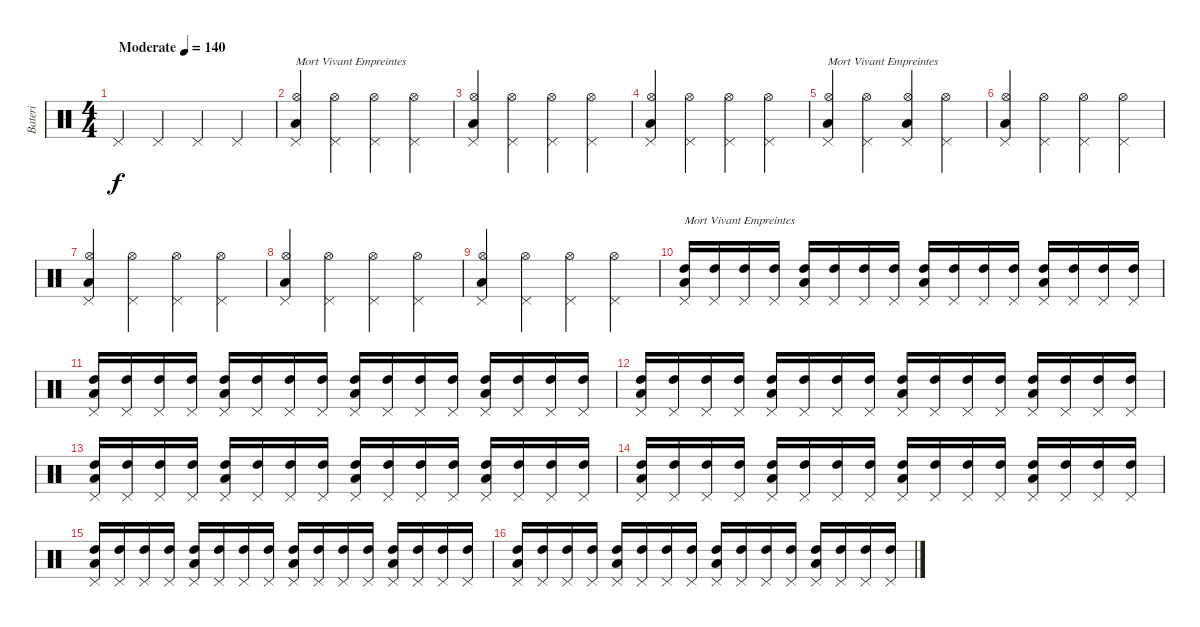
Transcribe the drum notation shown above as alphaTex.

\track ("Bateri" "Bateri") {instrument percussion}
\staff {score}
\articulation defaults
\ts (4 4)
\tempo (140 "Moderate")
\clef neutral
\ks c "Pedal Hi-Hat (hit)".4{dy f} "Pedal Hi-Hat (hit)".4 "Pedal Hi-Hat (hit)".4 "Pedal Hi-Hat (hit)".4
|
("Hi-Hat (open)" "Low Tom (hit)" "Pedal Hi-Hat (hit)").4{txt "Mort Vivant Empreintes"} ("Hi-Hat (open)" "Pedal Hi-Hat (hit)").4 ("Hi-Hat (open)" "Pedal Hi-Hat (hit)").4 ("Hi-Hat (open)" "Pedal Hi-Hat (hit)").4 |
("Hi-Hat (open)" "Low Tom (hit)" "Pedal Hi-Hat (hit)").4 ("Hi-Hat (open)" "Pedal Hi-Hat (hit)").4 ("Hi-Hat (open)" "Pedal Hi-Hat (hit)").4 ("Hi-Hat (open)" "Pedal Hi-Hat (hit)").4 |
("Hi-Hat (open)" "Low Tom (hit)" "Pedal Hi-Hat (hit)").4 ("Hi-Hat (open)" "Pedal Hi-Hat (hit)").4 ("Hi-Hat (open)" "Pedal Hi-Hat (hit)").4 ("Hi-Hat (open)" "Pedal Hi-Hat (hit)").4 |
("Hi-Hat (open)" "Low Tom (hit)" "Pedal Hi-Hat (hit)").4{txt "Mort Vivant Empreintes"} ("Hi-Hat (open)" "Pedal Hi-Hat (hit)").4 ("Hi-Hat (open)" "Low Tom (hit)" "Pedal Hi-Hat (hit)").4 ("Hi-Hat (open)" "Pedal Hi-Hat (hit)").4 |
("Hi-Hat (open)" "Low Tom (hit)" "Pedal Hi-Hat (hit)").4 ("Hi-Hat (open)" "Pedal Hi-Hat (hit)").4 ("Hi-Hat (open)" "Pedal Hi-Hat (hit)").4 ("Hi-Hat (open)" "Pedal Hi-Hat (hit)").4 |
("Hi-Hat (open)" "Low Tom (hit)" "Pedal Hi-Hat (hit)").4 ("Hi-Hat (open)" "Pedal Hi-Hat (hit)").4 ("Hi-Hat (open)" "Pedal Hi-Hat (hit)").4 ("Hi-Hat (open)" "Pedal Hi-Hat (hit)").4 |
("Hi-Hat (open)" "Low Tom (hit)" "Pedal Hi-Hat (hit)").4 ("Hi-Hat (open)" "Pedal Hi-Hat (hit)").4 ("Hi-Hat (open)" "Pedal Hi-Hat (hit)").4 ("Hi-Hat (open)" "Pedal Hi-Hat (hit)").4 |
("Hi-Hat (open)" "Low Tom (hit)" "Pedal Hi-Hat (hit)").4 ("Hi-Hat (open)" "Pedal Hi-Hat (hit)").4 ("Hi-Hat (open)" "Pedal Hi-Hat (hit)").4 ("Hi-Hat (open)" "Pedal Hi-Hat (hit)").4 |
("High Tom (hit)" "Low Tom (hit)" "Pedal Hi-Hat (hit)").16{txt "Mort Vivant Empreintes"} ("High Tom (hit)" "Pedal Hi-Hat (hit)").16 ("High Tom (hit)" "Pedal Hi-Hat (hit)").16 ("High Tom (hit)" "Pedal Hi-Hat (hit)").16 ("High Tom (hit)" "Low Tom (hit)" "Pedal Hi-Hat (hit)").16 ("High Tom (hit)" "Pedal Hi-Hat (hit)").16 ("High Tom (hit)" "Pedal Hi-Hat (hit)").16 ("High Tom (hit)" "Pedal Hi-Hat (hit)").16 ("High Tom (hit)" "Low Tom (hit)" "Pedal Hi-Hat (hit)").16 ("High Tom (hit)" "Pedal Hi-Hat (hit)").16 ("High Tom (hit)" "Pedal Hi-Hat (hit)").16 ("High Tom (hit)" "Pedal Hi-Hat (hit)").16 ("High Tom (hit)" "Low Tom (hit)" "Pedal Hi-Hat (hit)").16 ("High Tom (hit)" "Pedal Hi-Hat (hit)").16 ("High Tom (hit)" "Pedal Hi-Hat (hit)").16 ("High Tom (hit)" "Pedal Hi-Hat (hit)").16 |
("High Tom (hit)" "Low Tom (hit)" "Pedal Hi-Hat (hit)").16 ("High Tom (hit)" "Pedal Hi-Hat (hit)").16 ("High Tom (hit)" "Pedal Hi-Hat (hit)").16 ("High Tom (hit)" "Pedal Hi-Hat (hit)").16 ("High Tom (hit)" "Low Tom (hit)" "Pedal Hi-Hat (hit)").16 ("High Tom (hit)" "Pedal Hi-Hat (hit)").16 ("High Tom (hit)" "Pedal Hi-Hat (hit)").16 ("High Tom (hit)" "Pedal Hi-Hat (hit)").16 ("High Tom (hit)" "Low Tom (hit)" "Pedal Hi-Hat (hit)").16 ("High Tom (hit)" "Pedal Hi-Hat (hit)").16 ("High Tom (hit)" "Pedal Hi-Hat (hit)").16 ("High Tom (hit)" "Pedal Hi-Hat (hit)").16 ("High Tom (hit)" "Low Tom (hit)" "Pedal Hi-Hat (hit)").16 ("High Tom (hit)" "Pedal Hi-Hat (hit)").16 ("High Tom (hit)" "Pedal Hi-Hat (hit)").16 ("High Tom (hit)" "Pedal Hi-Hat (hit)").16 |
("High Tom (hit)" "Low Tom (hit)" "Pedal Hi-Hat (hit)").16 ("High Tom (hit)" "Pedal Hi-Hat (hit)").16 ("High Tom (hit)" "Pedal Hi-Hat (hit)").16 ("High Tom (hit)" "Pedal Hi-Hat (hit)").16 ("High Tom (hit)" "Low Tom (hit)" "Pedal Hi-Hat (hit)").16 ("High Tom (hit)" "Pedal Hi-Hat (hit)").16 ("High Tom (hit)" "Pedal Hi-Hat (hit)").16 ("High Tom (hit)" "Pedal Hi-Hat (hit)").16 ("High Tom (hit)" "Low Tom (hit)" "Pedal Hi-Hat (hit)").16 ("High Tom (hit)" "Pedal Hi-Hat (hit)").16 ("High Tom (hit)" "Pedal Hi-Hat (hit)").16 ("High Tom (hit)" "Pedal Hi-Hat (hit)").16 ("High Tom (hit)" "Low Tom (hit)" "Pedal Hi-Hat (hit)").16 ("High Tom (hit)" "Pedal Hi-Hat (hit)").16 ("High Tom (hit)" "Pedal Hi-Hat (hit)").16 ("High Tom (hit)" "Pedal Hi-Hat (hit)").16 |
("High Tom (hit)" "Low Tom (hit)" "Pedal Hi-Hat (hit)").16 ("High Tom (hit)" "Pedal Hi-Hat (hit)").16 ("High Tom (hit)" "Pedal Hi-Hat (hit)").16 ("High Tom (hit)" "Pedal Hi-Hat (hit)").16 ("High Tom (hit)" "Low Tom (hit)" "Pedal Hi-Hat (hit)").16 ("High Tom (hit)" "Pedal Hi-Hat (hit)").16 ("High Tom (hit)" "Pedal Hi-Hat (hit)").16 ("High Tom (hit)" "Pedal Hi-Hat (hit)").16 ("High Tom (hit)" "Low Tom (hit)" "Pedal Hi-Hat (hit)").16 ("High Tom (hit)" "Pedal Hi-Hat (hit)").16 ("High Tom (hit)" "Pedal Hi-Hat (hit)").16 ("High Tom (hit)" "Pedal Hi-Hat (hit)").16 ("High Tom (hit)" "Low Tom (hit)" "Pedal Hi-Hat (hit)").16 ("High Tom (hit)" "Pedal Hi-Hat (hit)").16 ("High Tom (hit)" "Pedal Hi-Hat (hit)").16 ("High Tom (hit)" "Pedal Hi-Hat (hit)").16 |
("High Tom (hit)" "Low Tom (hit)" "Pedal Hi-Hat (hit)").16 ("High Tom (hit)" "Pedal Hi-Hat (hit)").16 ("High Tom (hit)" "Pedal Hi-Hat (hit)").16 ("High Tom (hit)" "Pedal Hi-Hat (hit)").16 ("High Tom (hit)" "Low Tom (hit)" "Pedal Hi-Hat (hit)").16 ("High Tom (hit)" "Pedal Hi-Hat (hit)").16 ("High Tom (hit)" "Pedal Hi-Hat (hit)").16 ("High Tom (hit)" "Pedal Hi-Hat (hit)").16 ("High Tom (hit)" "Low Tom (hit)" "Pedal Hi-Hat (hit)").16 ("High Tom (hit)" "Pedal Hi-Hat (hit)").16 ("High Tom (hit)" "Pedal Hi-Hat (hit)").16 ("High Tom (hit)" "Pedal Hi-Hat (hit)").16 ("High Tom (hit)" "Low Tom (hit)" "Pedal Hi-Hat (hit)").16 ("High Tom (hit)" "Pedal Hi-Hat (hit)").16 ("High Tom (hit)" "Pedal Hi-Hat (hit)").16 ("High Tom (hit)" "Pedal Hi-Hat (hit)").16 |
("High Tom (hit)" "Low Tom (hit)" "Pedal Hi-Hat (hit)").16 ("High Tom (hit)" "Pedal Hi-Hat (hit)").16 ("High Tom (hit)" "Pedal Hi-Hat (hit)").16 ("High Tom (hit)" "Pedal Hi-Hat (hit)").16 ("High Tom (hit)" "Low Tom (hit)" "Pedal Hi-Hat (hit)").16 ("High Tom (hit)" "Pedal Hi-Hat (hit)").16 ("High Tom (hit)" "Pedal Hi-Hat (hit)").16 ("High Tom (hit)" "Pedal Hi-Hat (hit)").16 ("High Tom (hit)" "Low Tom (hit)" "Pedal Hi-Hat (hit)").16 ("High Tom (hit)" "Pedal Hi-Hat (hit)").16 ("High Tom (hit)" "Pedal Hi-Hat (hit)").16 ("High Tom (hit)" "Pedal Hi-Hat (hit)").16 ("High Tom (hit)" "Low Tom (hit)" "Pedal Hi-Hat (hit)").16 ("High Tom (hit)" "Pedal Hi-Hat (hit)").16 ("High Tom (hit)" "Pedal Hi-Hat (hit)").16 ("High Tom (hit)" "Pedal Hi-Hat (hit)").16 |
("High Tom (hit)" "Low Tom (hit)" "Pedal Hi-Hat (hit)").16 ("High Tom (hit)" "Pedal Hi-Hat (hit)").16 ("High Tom (hit)" "Pedal Hi-Hat (hit)").16 ("High Tom (hit)" "Pedal Hi-Hat (hit)").16 ("High Tom (hit)" "Low Tom (hit)" "Pedal Hi-Hat (hit)").16 ("High Tom (hit)" "Pedal Hi-Hat (hit)").16 ("High Tom (hit)" "Pedal Hi-Hat (hit)").16 ("High Tom (hit)" "Pedal Hi-Hat (hit)").16 ("High Tom (hit)" "Low Tom (hit)" "Pedal Hi-Hat (hit)").16 ("High Tom (hit)" "Pedal Hi-Hat (hit)").16 ("High Tom (hit)" "Pedal Hi-Hat (hit)").16 ("High Tom (hit)" "Pedal Hi-Hat (hit)").16 ("High Tom (hit)" "Low Tom (hit)" "Pedal Hi-Hat (hit)").16 ("High Tom (hit)" "Pedal Hi-Hat (hit)").16 ("High Tom (hit)" "Pedal Hi-Hat (hit)").16 ("High Tom (hit)" "Pedal Hi-Hat (hit)").16
